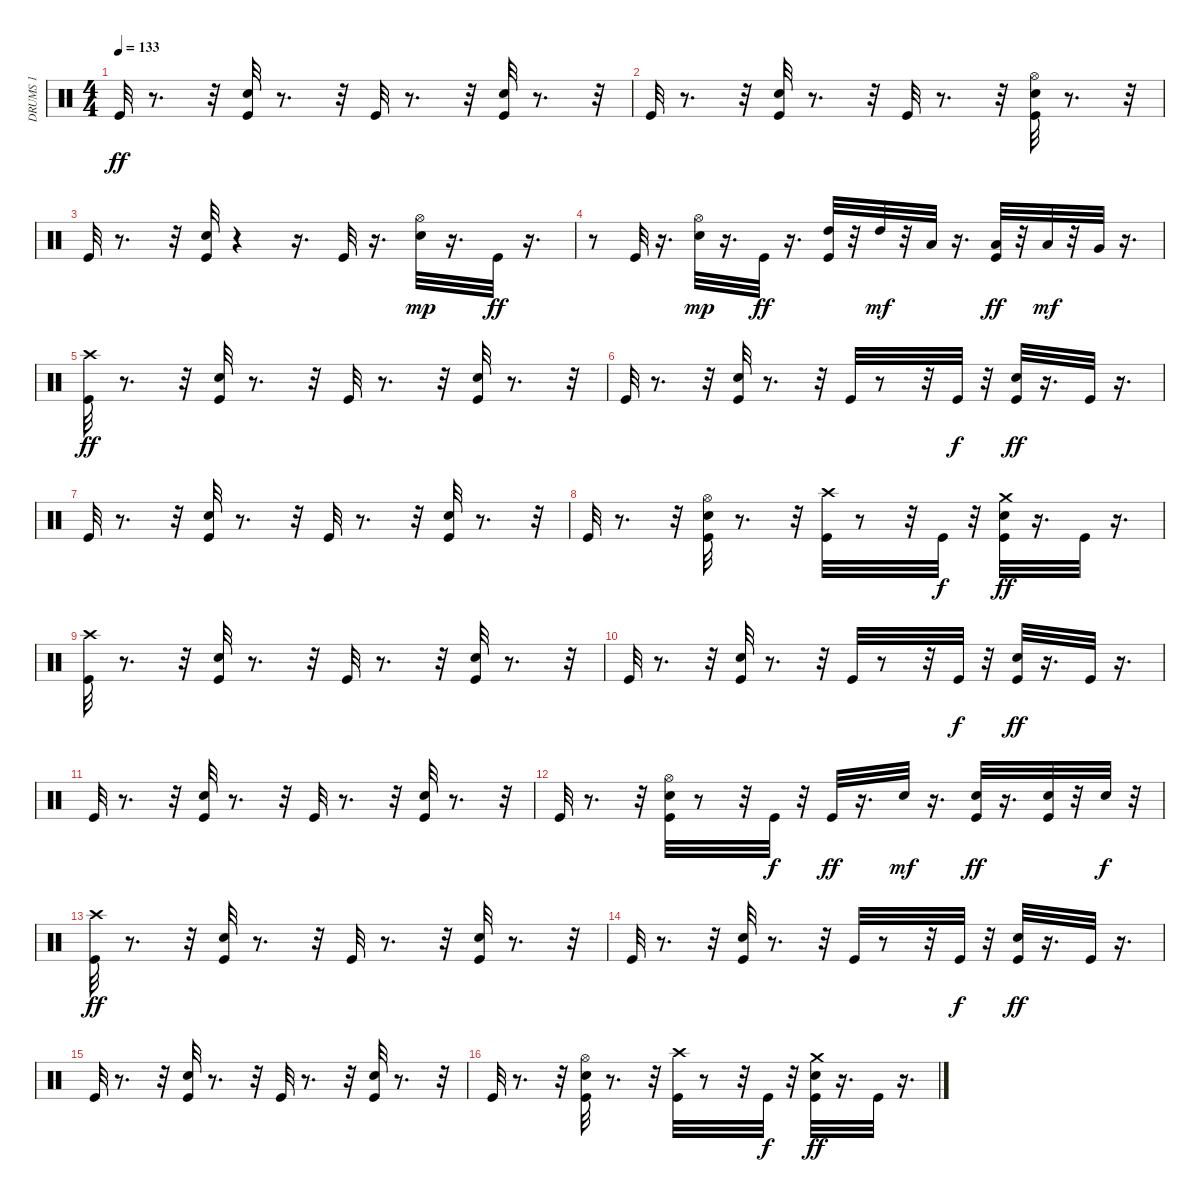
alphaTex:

\track ("DRUMS 1                             " "DRUMS 1   ") {instrument percussion}
\staff {score}
\articulation defaults
\ts (4 4)
\tempo 133
\clef neutral
\ks c "Kick (hit)".32{dy ff}
r.8{d} r.32 ("Electric Snare (hit)" "Kick (hit)").32 r.8{d} r.32 "Kick (hit)".32 r.8{d} r.32 ("Electric Snare (hit)" "Kick (hit)").32 r.8{d} r.32 |
"Kick (hit)".32 r.8{d} r.32 ("Electric Snare (hit)" "Kick (hit)").32 r.8{d} r.32 "Kick (hit)".32 r.8{d} r.32 ("Hi-Hat (open)" "Electric Snare (hit)" "Kick (hit)").32 r.8{d} r.32 |
"Kick (hit)".32 r.8{d} r.32 ("Electric Snare (hit)" "Kick (hit)").32 r.4 r.16{d} "Kick (hit)".32 r.16{d} ("Hi-Hat (open)" "Electric Snare (hit)").32{dy mp} r.16{d} "Kick (hit)".32{dy ff} r.16{d} |
r.8 "Kick (hit)".32 r.16{d} ("Hi-Hat (open)" "Electric Snare (hit)").32{dy mp} r.16{d} "Kick (hit)".32{dy ff} r.16{d} ("High Tom (hit)" "Kick (hit)").32 r.32 "High Tom (hit)".32{dy mf} r.32 "Low Tom (hit)".32 r.16{d} ("Low Tom (hit)" "Kick (hit)").32{dy ff} r.32 "Low Tom (hit)".32{dy mf} r.32 "Very Low Tom (hit)".32 r.16{d} |
("Crash high (hit)" "Kick (hit)").32{dy ff} r.8{d} r.32 ("Electric Snare (hit)" "Kick (hit)").32 r.8{d} r.32 "Kick (hit)".32 r.8{d} r.32 ("Electric Snare (hit)" "Kick (hit)").32 r.8{d} r.32 |
"Kick (hit)".32 r.8{d} r.32 ("Electric Snare (hit)" "Kick (hit)").32 r.8{d} r.32 "Kick (hit)".32 r.8 r.32 "Kick (hit)".32{dy f} r.32 ("Electric Snare (hit)" "Kick (hit)").32{dy ff} r.16{d} "Kick (hit)".32 r.16{d} |
"Kick (hit)".32 r.8{d} r.32 ("Electric Snare (hit)" "Kick (hit)").32 r.8{d} r.32 "Kick (hit)".32 r.8{d} r.32 ("Electric Snare (hit)" "Kick (hit)").32 r.8{d} r.32 |
"Kick (hit)".32 r.8{d} r.32 ("Hi-Hat (open)" "Electric Snare (hit)" "Kick (hit)").32 r.8{d} r.32 ("Crash high (hit)" "Kick (hit)").32 r.8 r.32 "Kick (hit)".32{dy f} r.32 ("Crash medium (hit)" "Electric Snare (hit)" "Kick (hit)").32{dy ff} r.16{d} "Kick (hit)".32 r.16{d} |
("Crash high (hit)" "Kick (hit)").32 r.8{d} r.32 ("Electric Snare (hit)" "Kick (hit)").32 r.8{d} r.32 "Kick (hit)".32 r.8{d} r.32 ("Electric Snare (hit)" "Kick (hit)").32 r.8{d} r.32 |
"Kick (hit)".32 r.8{d} r.32 ("Electric Snare (hit)" "Kick (hit)").32 r.8{d} r.32 "Kick (hit)".32 r.8 r.32 "Kick (hit)".32{dy f} r.32 ("Electric Snare (hit)" "Kick (hit)").32{dy ff} r.16{d} "Kick (hit)".32 r.16{d} |
"Kick (hit)".32 r.8{d} r.32 ("Electric Snare (hit)" "Kick (hit)").32 r.8{d} r.32 "Kick (hit)".32 r.8{d} r.32 ("Electric Snare (hit)" "Kick (hit)").32 r.8{d} r.32 |
"Kick (hit)".32 r.8{d} r.32 ("Hi-Hat (open)" "Electric Snare (hit)" "Kick (hit)").32 r.8 r.32 "Kick (hit)".32{dy f} r.32 "Kick (hit)".32{dy ff} r.16{d} "Electric Snare (hit)".32{dy mf} r.16{d} ("Electric Snare (hit)" "Kick (hit)").32{dy ff} r.16{d} ("Electric Snare (hit)" "Kick (hit)").32 r.32 "Electric Snare (hit)".32{dy f} r.32 |
("Crash high (hit)" "Kick (hit)").32{dy ff} r.8{d} r.32 ("Electric Snare (hit)" "Kick (hit)").32 r.8{d} r.32 "Kick (hit)".32 r.8{d} r.32 ("Electric Snare (hit)" "Kick (hit)").32 r.8{d} r.32 |
"Kick (hit)".32 r.8{d} r.32 ("Electric Snare (hit)" "Kick (hit)").32 r.8{d} r.32 "Kick (hit)".32 r.8 r.32 "Kick (hit)".32{dy f} r.32 ("Electric Snare (hit)" "Kick (hit)").32{dy ff} r.16{d} "Kick (hit)".32 r.16{d} |
"Kick (hit)".32 r.8{d} r.32 ("Electric Snare (hit)" "Kick (hit)").32 r.8{d} r.32 "Kick (hit)".32 r.8{d} r.32 ("Electric Snare (hit)" "Kick (hit)").32 r.8{d} r.32 |
"Kick (hit)".32 r.8{d} r.32 ("Hi-Hat (open)" "Electric Snare (hit)" "Kick (hit)").32 r.8{d} r.32 ("Crash high (hit)" "Kick (hit)").32 r.8 r.32 "Kick (hit)".32{dy f} r.32 ("Crash medium (hit)" "Electric Snare (hit)" "Kick (hit)").32{dy ff} r.16{d} "Kick (hit)".32 r.16{d}
